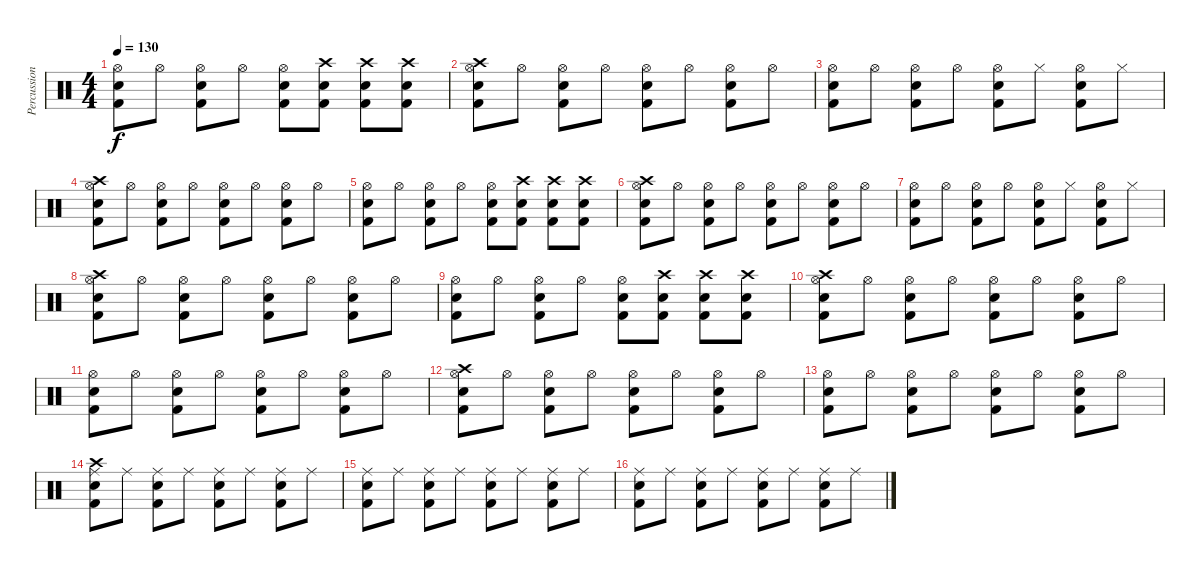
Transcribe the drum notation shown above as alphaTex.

\track ("Percussion" "Percussion") {instrument percussion}
\staff {score}
\articulation defaults
\ts (4 4)
\tempo 130
\clef neutral
\ks c
("Hi-Hat (open)" "Electric Snare (hit)" "Kick (hit) 2").8{dy f} "Hi-Hat (open)".8 ("Hi-Hat (open)" "Electric Snare (hit)" "Kick (hit) 2").8 "Hi-Hat (open)".8 ("Hi-Hat (open)" "Electric Snare (hit)" "Kick (hit) 2").8 ("Crash high (hit)" "Electric Snare (hit)" "Kick (hit) 2").8 ("Crash high (hit)" "Electric Snare (hit)" "Kick (hit) 2").8 ("Crash high (hit)" "Electric Snare (hit)" "Kick (hit) 2").8 |
("Hi-Hat (open)" "Crash high (hit)" "Electric Snare (hit)" "Kick (hit) 2").8 "Hi-Hat (open)".8 ("Hi-Hat (open)" "Electric Snare (hit)" "Kick (hit) 2").8 "Hi-Hat (open)".8 ("Hi-Hat (open)" "Electric Snare (hit)" "Kick (hit) 2").8 "Hi-Hat (open)".8 ("Hi-Hat (open)" "Electric Snare (hit)" "Kick (hit) 2").8 "Hi-Hat (open)".8 |
("Hi-Hat (open)" "Electric Snare (hit)" "Kick (hit) 2").8 "Hi-Hat (open)".8 ("Hi-Hat (open)" "Electric Snare (hit)" "Kick (hit) 2").8 "Hi-Hat (open)".8 ("Hi-Hat (open)" "Electric Snare (hit)" "Kick (hit) 2").8 "Hi-Hat (closed)".8 ("Hi-Hat (open)" "Electric Snare (hit)" "Kick (hit) 2").8 "Hi-Hat (closed)".8 |
("Hi-Hat (open)" "Crash high (hit)" "Electric Snare (hit)" "Kick (hit) 2").8 "Hi-Hat (open)".8 ("Hi-Hat (open)" "Electric Snare (hit)" "Kick (hit) 2").8 "Hi-Hat (open)".8 ("Hi-Hat (open)" "Electric Snare (hit)" "Kick (hit) 2").8 "Hi-Hat (open)".8 ("Hi-Hat (open)" "Electric Snare (hit)" "Kick (hit) 2").8 "Hi-Hat (open)".8 |
("Hi-Hat (open)" "Electric Snare (hit)" "Kick (hit) 2").8 "Hi-Hat (open)".8 ("Hi-Hat (open)" "Electric Snare (hit)" "Kick (hit) 2").8 "Hi-Hat (open)".8 ("Hi-Hat (open)" "Electric Snare (hit)" "Kick (hit) 2").8 ("Crash high (hit)" "Electric Snare (hit)" "Kick (hit) 2").8 ("Crash high (hit)" "Electric Snare (hit)" "Kick (hit) 2").8 ("Crash high (hit)" "Electric Snare (hit)" "Kick (hit) 2").8 |
("Hi-Hat (open)" "Crash high (hit)" "Electric Snare (hit)" "Kick (hit) 2").8 "Hi-Hat (open)".8 ("Hi-Hat (open)" "Electric Snare (hit)" "Kick (hit) 2").8 "Hi-Hat (open)".8 ("Hi-Hat (open)" "Electric Snare (hit)" "Kick (hit) 2").8 "Hi-Hat (open)".8 ("Hi-Hat (open)" "Electric Snare (hit)" "Kick (hit) 2").8 "Hi-Hat (open)".8 |
("Hi-Hat (open)" "Electric Snare (hit)" "Kick (hit) 2").8 "Hi-Hat (open)".8 ("Hi-Hat (open)" "Electric Snare (hit)" "Kick (hit) 2").8 "Hi-Hat (open)".8 ("Hi-Hat (open)" "Electric Snare (hit)" "Kick (hit) 2").8 "Hi-Hat (closed)".8 ("Hi-Hat (open)" "Electric Snare (hit)" "Kick (hit) 2").8 "Hi-Hat (closed)".8 |
("Hi-Hat (open)" "Crash high (hit)" "Electric Snare (hit)" "Kick (hit) 2").8 "Hi-Hat (open)".8 ("Hi-Hat (open)" "Electric Snare (hit)" "Kick (hit) 2").8 "Hi-Hat (open)".8 ("Hi-Hat (open)" "Electric Snare (hit)" "Kick (hit) 2").8 "Hi-Hat (open)".8 ("Hi-Hat (open)" "Electric Snare (hit)" "Kick (hit) 2").8 "Hi-Hat (open)".8 |
("Hi-Hat (open)" "Electric Snare (hit)" "Kick (hit) 2").8 "Hi-Hat (open)".8 ("Hi-Hat (open)" "Electric Snare (hit)" "Kick (hit) 2").8 "Hi-Hat (open)".8 ("Hi-Hat (open)" "Electric Snare (hit)" "Kick (hit) 2").8 ("Crash high (hit)" "Electric Snare (hit)" "Kick (hit) 2").8 ("Crash high (hit)" "Electric Snare (hit)" "Kick (hit) 2").8 ("Crash high (hit)" "Electric Snare (hit)" "Kick (hit) 2").8 |
("Hi-Hat (open)" "Crash high (hit)" "Electric Snare (hit)" "Kick (hit) 2").8 "Hi-Hat (open)".8 ("Hi-Hat (open)" "Electric Snare (hit)" "Kick (hit) 2").8 "Hi-Hat (open)".8 ("Hi-Hat (open)" "Electric Snare (hit)" "Kick (hit) 2").8 "Hi-Hat (open)".8 ("Hi-Hat (open)" "Electric Snare (hit)" "Kick (hit) 2").8 "Hi-Hat (open)".8 |
("Hi-Hat (open)" "Electric Snare (hit)" "Kick (hit) 2").8 "Hi-Hat (open)".8 ("Hi-Hat (open)" "Electric Snare (hit)" "Kick (hit) 2").8 "Hi-Hat (open)".8 ("Hi-Hat (open)" "Electric Snare (hit)" "Kick (hit) 2").8 "Hi-Hat (open)".8 ("Hi-Hat (open)" "Electric Snare (hit)" "Kick (hit) 2").8 "Hi-Hat (open)".8 |
("Hi-Hat (open)" "Crash high (hit)" "Electric Snare (hit)" "Kick (hit) 2").8 "Hi-Hat (open)".8 ("Hi-Hat (open)" "Electric Snare (hit)" "Kick (hit) 2").8 "Hi-Hat (open)".8 ("Hi-Hat (open)" "Electric Snare (hit)" "Kick (hit) 2").8 "Hi-Hat (open)".8 ("Hi-Hat (open)" "Electric Snare (hit)" "Kick (hit) 2").8 "Hi-Hat (open)".8 |
("Hi-Hat (open)" "Electric Snare (hit)" "Kick (hit) 2").8 "Hi-Hat (open)".8 ("Hi-Hat (open)" "Electric Snare (hit)" "Kick (hit) 2").8 "Hi-Hat (open)".8 ("Hi-Hat (open)" "Electric Snare (hit)" "Kick (hit) 2").8 "Hi-Hat (open)".8 ("Hi-Hat (open)" "Electric Snare (hit)" "Kick (hit) 2").8 "Hi-Hat (open)".8 |
("Ride (middle)" "Crash high (hit)" "Electric Snare (hit)" "Kick (hit) 2").8 "Ride (middle)".8 ("Ride (middle)" "Electric Snare (hit)" "Kick (hit) 2").8 "Ride (middle)".8 ("Ride (middle)" "Electric Snare (hit)" "Kick (hit) 2").8 "Ride (middle)".8 ("Ride (middle)" "Electric Snare (hit)" "Kick (hit) 2").8 "Ride (middle)".8 |
("Ride (middle)" "Electric Snare (hit)" "Kick (hit) 2").8 "Ride (middle)".8 ("Ride (middle)" "Electric Snare (hit)" "Kick (hit) 2").8 "Ride (middle)".8 ("Ride (middle)" "Electric Snare (hit)" "Kick (hit) 2").8 "Ride (middle)".8 ("Ride (middle)" "Electric Snare (hit)" "Kick (hit) 2").8 "Ride (middle)".8 |
("Ride (middle)" "Electric Snare (hit)" "Kick (hit) 2").8 "Ride (middle)".8 ("Ride (middle)" "Electric Snare (hit)" "Kick (hit) 2").8 "Ride (middle)".8 ("Ride (middle)" "Electric Snare (hit)" "Kick (hit) 2").8 "Ride (middle)".8 ("Ride (middle)" "Electric Snare (hit)" "Kick (hit) 2").8 "Ride (middle)".8
